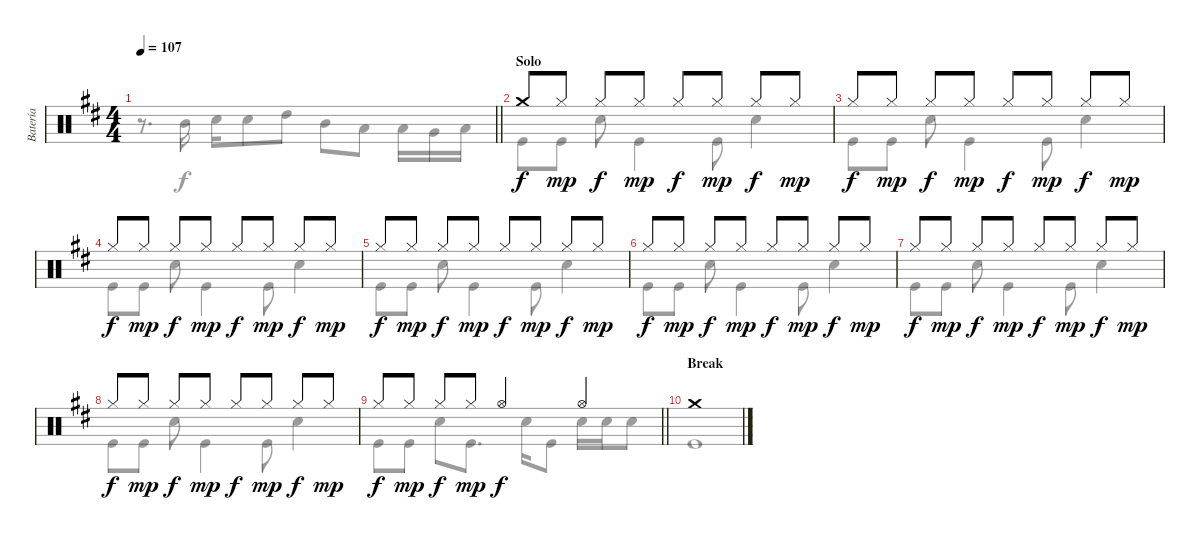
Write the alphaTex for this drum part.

\track ("Batería" "Batería") {instrument percussion}
\staff {score}
\articulation defaults
\voice
\ts (4 4)
\tempo 107
\clef neutral
\barLineRight lightlight
\ks d
|
\section ("" "Solo")
"Crash medium (hit)".8 "Hi-Hat (closed)".8{dy mp} "Hi-Hat (closed)".8{dy f} "Hi-Hat (closed)".8{dy mp} "Hi-Hat (closed)".8{dy f} "Hi-Hat (closed)".8{dy mp} "Hi-Hat (closed)".8{dy f} "Hi-Hat (closed)".8{dy mp} |
"Hi-Hat (closed)".8{dy f} "Hi-Hat (closed)".8{dy mp} "Hi-Hat (closed)".8{dy f} "Hi-Hat (closed)".8{dy mp} "Hi-Hat (closed)".8{dy f} "Hi-Hat (closed)".8{dy mp} "Hi-Hat (closed)".8{dy f} "Hi-Hat (closed)".8{dy mp} |
"Hi-Hat (closed)".8{dy f} "Hi-Hat (closed)".8{dy mp} "Hi-Hat (closed)".8{dy f} "Hi-Hat (closed)".8{dy mp} "Hi-Hat (closed)".8{dy f} "Hi-Hat (closed)".8{dy mp} "Hi-Hat (closed)".8{dy f} "Hi-Hat (closed)".8{dy mp} |
"Hi-Hat (closed)".8{dy f} "Hi-Hat (closed)".8{dy mp} "Hi-Hat (closed)".8{dy f} "Hi-Hat (closed)".8{dy mp} "Hi-Hat (closed)".8{dy f} "Hi-Hat (closed)".8{dy mp} "Hi-Hat (closed)".8{dy f} "Hi-Hat (closed)".8{dy mp} |
"Hi-Hat (closed)".8{dy f} "Hi-Hat (closed)".8{dy mp} "Hi-Hat (closed)".8{dy f} "Hi-Hat (closed)".8{dy mp} "Hi-Hat (closed)".8{dy f} "Hi-Hat (closed)".8{dy mp} "Hi-Hat (closed)".8{dy f} "Hi-Hat (closed)".8{dy mp} |
"Hi-Hat (closed)".8{dy f} "Hi-Hat (closed)".8{dy mp} "Hi-Hat (closed)".8{dy f} "Hi-Hat (closed)".8{dy mp} "Hi-Hat (closed)".8{dy f} "Hi-Hat (closed)".8{dy mp} "Hi-Hat (closed)".8{dy f} "Hi-Hat (closed)".8{dy mp} |
"Hi-Hat (closed)".8{dy f} "Hi-Hat (closed)".8{dy mp} "Hi-Hat (closed)".8{dy f} "Hi-Hat (closed)".8{dy mp} "Hi-Hat (closed)".8{dy f} "Hi-Hat (closed)".8{dy mp} "Hi-Hat (closed)".8{dy f} "Hi-Hat (closed)".8{dy mp} |
\barLineRight lightlight "Hi-Hat (closed)".8{dy f} "Hi-Hat (closed)".8{dy mp} "Hi-Hat (closed)".8{dy f} "Hi-Hat (closed)".8{dy mp} "Hi-Hat (open)".4{dy f} "Hi-Hat (open)".4
|
\section ("" "Break")
"Crash medium (hit)".1 |
|
|
|
|
|
\voice
\clef neutral
\ottava regular
\simile none
\barLineRight lightlight
\ks d
r.8{d dy f} "Mid Tom (hit)".16 "Electric Snare (hit)".16 "Electric Snare (hit)".8 "High Tom (hit)".8 "Mid Tom (hit)".8 "Low Tom (hit)".8 "Low Tom (hit)".16 "Very Low Tom (hit)".16 "Low Floor Tom (hit)".16 |
"Kick (hit)".8 "Kick (hit)".8 "Electric Snare (hit)".8 "Kick (hit)".4 "Kick (hit)".8 "Electric Snare (hit)".4 |
"Kick (hit)".8 "Kick (hit)".8 "Electric Snare (hit)".8 "Kick (hit)".4 "Kick (hit)".8 "Electric Snare (hit)".4 |
"Kick (hit)".8 "Kick (hit)".8 "Electric Snare (hit)".8 "Kick (hit)".4 "Kick (hit)".8 "Electric Snare (hit)".4 |
"Kick (hit)".8 "Kick (hit)".8 "Electric Snare (hit)".8 "Kick (hit)".4 "Kick (hit)".8 "Electric Snare (hit)".4 |
"Kick (hit)".8 "Kick (hit)".8 "Electric Snare (hit)".8 "Kick (hit)".4 "Kick (hit)".8 "Electric Snare (hit)".4 |
"Kick (hit)".8 "Kick (hit)".8 "Electric Snare (hit)".8 "Kick (hit)".4 "Kick (hit)".8 "Electric Snare (hit)".4 |
"Kick (hit)".8 "Kick (hit)".8 "Electric Snare (hit)".8 "Kick (hit)".4 "Kick (hit)".8 "Electric Snare (hit)".4 |
\barLineRight lightlight "Kick (hit)".8 "Kick (hit)".8 "Electric Snare (hit)".8 "Kick (hit)".8{d} "Electric Snare (hit)".16 "Kick (hit)".8 "Electric Snare (hit)".16 "Electric Snare (hit)".16 "Electric Snare (hit)".8
|
"Kick (hit)".1 |
|
|
|
|
|
